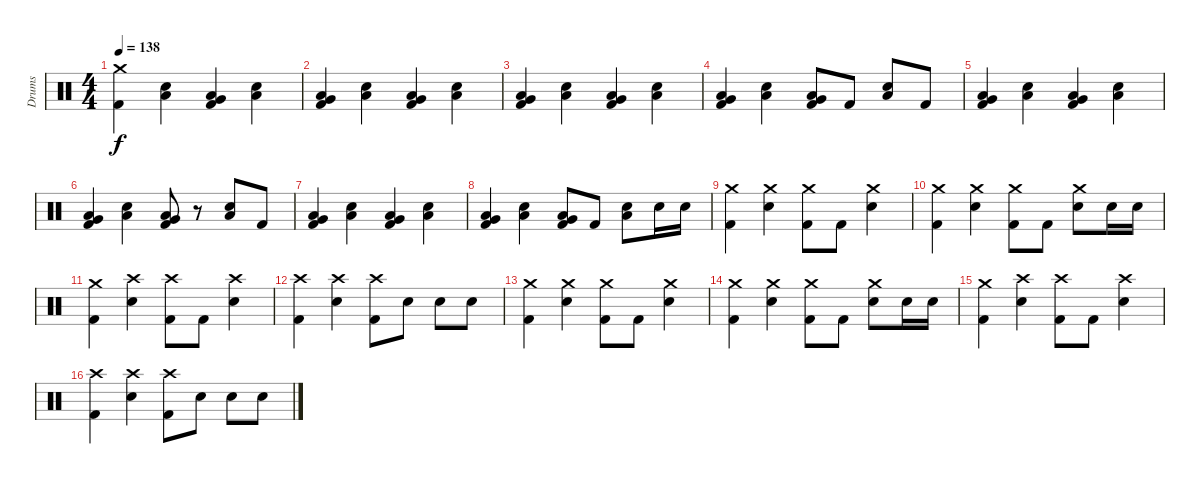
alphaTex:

\track ("Drums" "Drums") {instrument percussion}
\staff
\articulation defaults
\ts (4 4)
\tempo 138
\clef neutral
\ks c
("Crash medium (hit)" "Kick (hit) 2").4{dy f} ("Low Floor Tom (hit)" "Snare (hit) 2").4 ("Very Low Tom (hit)" "Low Floor Tom (hit)" "Kick (hit) 2").4 ("Low Floor Tom (hit)" "Snare (hit) 2").4 |
("Very Low Tom (hit)" "Low Floor Tom (hit)" "Kick (hit) 2").4 ("Low Floor Tom (hit)" "Snare (hit) 2").4 ("Very Low Tom (hit)" "Low Floor Tom (hit)" "Kick (hit) 2").4 ("Low Floor Tom (hit)" "Snare (hit) 2").4 |
("Very Low Tom (hit)" "Low Floor Tom (hit)" "Kick (hit) 2").4 ("Low Floor Tom (hit)" "Snare (hit) 2").4 ("Very Low Tom (hit)" "Low Floor Tom (hit)" "Kick (hit) 2").4 ("Low Floor Tom (hit)" "Snare (hit) 2").4 |
("Very Low Tom (hit)" "Low Floor Tom (hit)" "Kick (hit) 2").4 ("Low Floor Tom (hit)" "Snare (hit) 2").4 ("Very Low Tom (hit)" "Low Floor Tom (hit)" "Kick (hit) 2").8 "Kick (hit) 2".8 ("Low Floor Tom (hit)" "Snare (hit) 2").8 "Kick (hit) 2".8 |
("Low Floor Tom (hit)" "Very Low Tom (hit)" "Kick (hit) 2").4 ("Low Floor Tom (hit)" "Snare (hit) 2").4 ("Very Low Tom (hit)" "Low Floor Tom (hit)" "Kick (hit) 2").4 ("Low Floor Tom (hit)" "Snare (hit) 2").4 |
("Very Low Tom (hit)" "Low Floor Tom (hit)" "Kick (hit) 2").4 ("Low Floor Tom (hit)" "Snare (hit) 2").4 ("Very Low Tom (hit)" "Low Floor Tom (hit)" "Kick (hit) 2").8 r.8 ("Low Floor Tom (hit)" "Snare (hit) 2").8 "Kick (hit) 2".8 |
("Very Low Tom (hit)" "Low Floor Tom (hit)" "Kick (hit) 2").4 ("Low Floor Tom (hit)" "Snare (hit) 2").4 ("Very Low Tom (hit)" "Low Floor Tom (hit)" "Kick (hit) 2").4 ("Low Floor Tom (hit)" "Snare (hit) 2").4 |
("Very Low Tom (hit)" "Low Floor Tom (hit)" "Kick (hit) 2").4 ("Low Floor Tom (hit)" "Snare (hit) 2").4 ("Very Low Tom (hit)" "Low Floor Tom (hit)" "Kick (hit) 2").8 "Kick (hit) 2".8 ("Low Floor Tom (hit)" "Snare (hit) 2").8 "Snare (hit) 2".16 "Snare (hit) 2".16 |
("Crash medium (hit)" "Kick (hit) 2").4 ("Crash medium (hit)" "Snare (hit) 2").4 ("Crash medium (hit)" "Kick (hit) 2").8 "Kick (hit) 2".8 ("Crash medium (hit)" "Snare (hit) 2").4 |
("Crash medium (hit)" "Kick (hit) 2").4 ("Crash medium (hit)" "Snare (hit) 2").4 ("Crash medium (hit)" "Kick (hit) 2").8 "Kick (hit) 2".8 ("Crash medium (hit)" "Snare (hit) 2").8 "Snare (hit) 2".16 "Snare (hit) 2".16 |
("Crash medium (hit)" "Kick (hit) 2").4 ("Crash high (hit)" "Snare (hit) 2").4 ("Crash high (hit)" "Kick (hit) 2").8 "Kick (hit) 2".8 ("Crash high (hit)" "Snare (hit) 2").4 |
("Crash high (hit)" "Kick (hit) 2").4 ("Crash high (hit)" "Snare (hit) 2").4 ("Crash high (hit)" "Kick (hit) 2").8 "Snare (hit) 2".8 "Snare (hit) 2".8 "Snare (hit) 2".8 |
("Crash medium (hit)" "Kick (hit) 2").4 ("Crash medium (hit)" "Snare (hit) 2").4 ("Crash medium (hit)" "Kick (hit) 2").8 "Kick (hit) 2".8 ("Crash medium (hit)" "Snare (hit) 2").4 |
("Crash medium (hit)" "Kick (hit) 2").4 ("Crash medium (hit)" "Snare (hit) 2").4 ("Crash medium (hit)" "Kick (hit) 2").8 "Kick (hit) 2".8 ("Crash medium (hit)" "Snare (hit) 2").8 "Snare (hit) 2".16 "Snare (hit) 2".16 |
("Crash medium (hit)" "Kick (hit) 2").4 ("Crash high (hit)" "Snare (hit) 2").4 ("Crash high (hit)" "Kick (hit) 2").8 "Kick (hit) 2".8 ("Crash high (hit)" "Snare (hit) 2").4 |
("Crash high (hit)" "Kick (hit) 2").4 ("Crash high (hit)" "Snare (hit) 2").4 ("Crash high (hit)" "Kick (hit) 2").8 "Snare (hit) 2".8 "Snare (hit) 2".8 "Snare (hit) 2".8
